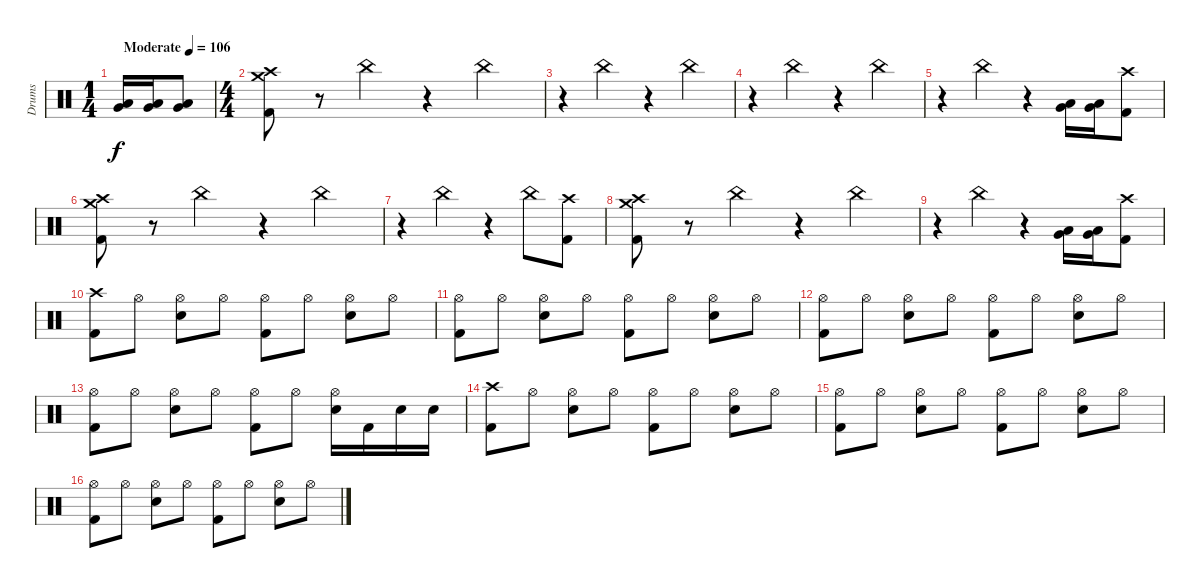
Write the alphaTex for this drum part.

\track ("Drums" "Drums") {instrument percussion}
\staff {score}
\articulation defaults
\ts (1 4)
\tempo (106 "Moderate")
\clef neutral
\ks c
("Very Low Tom (hit)" "Low Tom (hit)").16{dy f} ("Very Low Tom (hit)" "Low Tom (hit)").16 ("Very Low Tom (hit)" "Low Tom (hit)").8 |
\ts (4 4)
("Crash medium (hit)" "Crash high (hit)" "Kick (hit) 2").8 r.8 "China (hit)".4 r.4 "China (hit)".4 |
r.4 "China (hit)".4 r.4 "China (hit)".4 |
r.4 "China (hit)".4 r.4 "China (hit)".4 |
r.4 "China (hit)".4 r.4 ("Very Low Tom (hit)" "Low Tom (hit)").16 ("Very Low Tom (hit)" "Low Tom (hit)").16 ("Crash high (hit)" "Kick (hit) 2").8 |
("Crash medium (hit)" "Crash high (hit)" "Kick (hit) 2").8 r.8 "China (hit)".4 r.4 "China (hit)".4 |
r.4 "China (hit)".4 r.4 "China (hit)".8 ("Crash high (hit)" "Kick (hit) 2").8 |
("Crash medium (hit)" "Crash high (hit)" "Kick (hit) 2").8 r.8 "China (hit)".4 r.4 "China (hit)".4 |
r.4 "China (hit)".4 r.4 ("Very Low Tom (hit)" "Low Tom (hit)").16 ("Very Low Tom (hit)" "Low Tom (hit)").16 ("Crash high (hit)" "Kick (hit) 2").8 |
("Crash high (hit)" "Kick (hit) 2").8 "Hi-Hat (open)".8 ("Hi-Hat (open)" "Electric Snare (hit)").8 "Hi-Hat (open)".8 ("Hi-Hat (open)" "Kick (hit) 2").8 "Hi-Hat (open)".8 ("Hi-Hat (open)" "Electric Snare (hit)").8 "Hi-Hat (open)".8 |
("Hi-Hat (open)" "Kick (hit) 2").8 "Hi-Hat (open)".8 ("Hi-Hat (open)" "Electric Snare (hit)").8 "Hi-Hat (open)".8 ("Hi-Hat (open)" "Kick (hit) 2").8 "Hi-Hat (open)".8 ("Hi-Hat (open)" "Electric Snare (hit)").8 "Hi-Hat (open)".8 |
("Hi-Hat (open)" "Kick (hit) 2").8 "Hi-Hat (open)".8 ("Hi-Hat (open)" "Electric Snare (hit)").8 "Hi-Hat (open)".8 ("Hi-Hat (open)" "Kick (hit) 2").8 "Hi-Hat (open)".8 ("Hi-Hat (open)" "Electric Snare (hit)").8 "Hi-Hat (open)".8 |
("Hi-Hat (open)" "Kick (hit) 2").8 "Hi-Hat (open)".8 ("Hi-Hat (open)" "Electric Snare (hit)").8 "Hi-Hat (open)".8 ("Hi-Hat (open)" "Kick (hit) 2").8 "Hi-Hat (open)".8 ("Hi-Hat (open)" "Electric Snare (hit)").16 "Kick (hit) 2".16 "Electric Snare (hit)".16 "Electric Snare (hit)".16 |
("Crash high (hit)" "Kick (hit) 2").8 "Hi-Hat (open)".8 ("Hi-Hat (open)" "Electric Snare (hit)").8 "Hi-Hat (open)".8 ("Hi-Hat (open)" "Kick (hit) 2").8 "Hi-Hat (open)".8 ("Hi-Hat (open)" "Electric Snare (hit)").8 "Hi-Hat (open)".8 |
("Hi-Hat (open)" "Kick (hit) 2").8 "Hi-Hat (open)".8 ("Hi-Hat (open)" "Electric Snare (hit)").8 "Hi-Hat (open)".8 ("Hi-Hat (open)" "Kick (hit) 2").8 "Hi-Hat (open)".8 ("Hi-Hat (open)" "Electric Snare (hit)").8 "Hi-Hat (open)".8 |
("Hi-Hat (open)" "Kick (hit) 2").8 "Hi-Hat (open)".8 ("Hi-Hat (open)" "Electric Snare (hit)").8 "Hi-Hat (open)".8 ("Hi-Hat (open)" "Kick (hit) 2").8 "Hi-Hat (open)".8 ("Hi-Hat (open)" "Electric Snare (hit)").8 "Hi-Hat (open)".8
